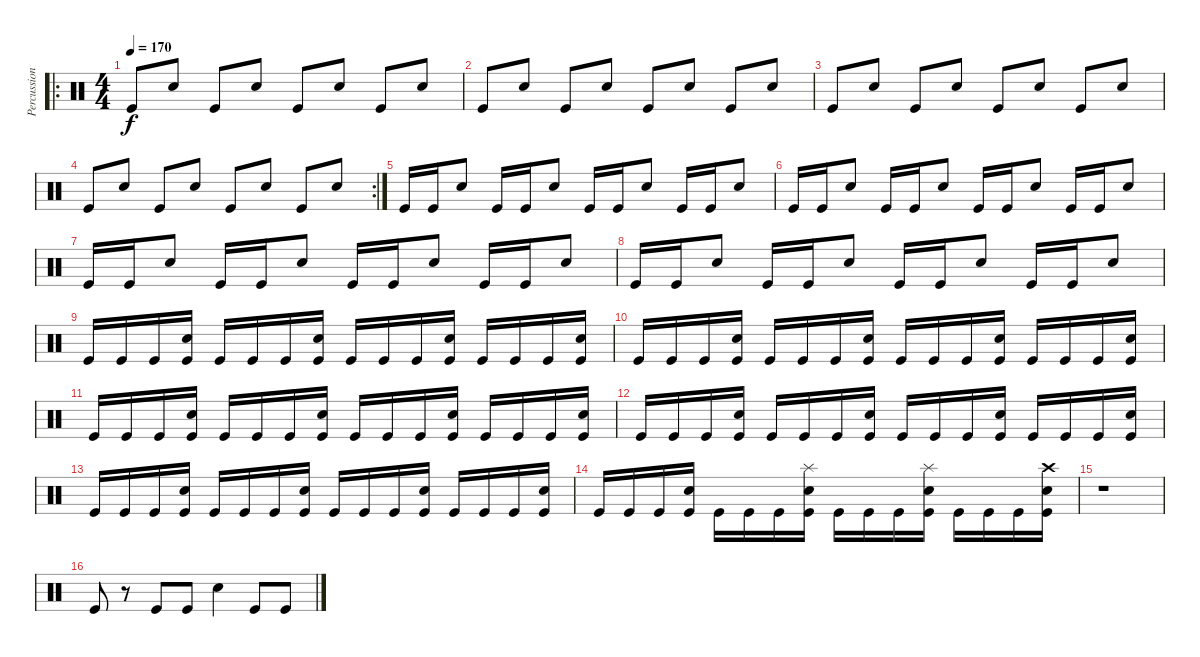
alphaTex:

\track ("Percussion" "Percussion") {instrument percussion}
\staff {score}
\articulation defaults
\ro
\ts (4 4)
\tempo 170
\clef neutral
\ks c "Kick (hit)".8{dy f} "Electric Snare (hit)".8 "Kick (hit)".8 "Electric Snare (hit)".8 "Kick (hit)".8 "Electric Snare (hit)".8 "Kick (hit)".8 "Electric Snare (hit)".8
|
"Kick (hit)".8 "Electric Snare (hit)".8 "Kick (hit)".8 "Electric Snare (hit)".8 "Kick (hit)".8 "Electric Snare (hit)".8 "Kick (hit)".8 "Electric Snare (hit)".8 |
"Kick (hit)".8 "Electric Snare (hit)".8 "Kick (hit)".8 "Electric Snare (hit)".8 "Kick (hit)".8 "Electric Snare (hit)".8 "Kick (hit)".8 "Electric Snare (hit)".8 |
\rc 2 "Kick (hit)".8 "Electric Snare (hit)".8 "Kick (hit)".8 "Electric Snare (hit)".8 "Kick (hit)".8 "Electric Snare (hit)".8 "Kick (hit)".8 "Electric Snare (hit)".8
|
"Kick (hit)".16 "Kick (hit)".16 "Electric Snare (hit)".8 "Kick (hit)".16 "Kick (hit)".16 "Electric Snare (hit)".8 "Kick (hit)".16 "Kick (hit)".16 "Electric Snare (hit)".8 "Kick (hit)".16 "Kick (hit)".16 "Electric Snare (hit)".8 |
"Kick (hit)".16 "Kick (hit)".16 "Electric Snare (hit)".8 "Kick (hit)".16 "Kick (hit)".16 "Electric Snare (hit)".8 "Kick (hit)".16 "Kick (hit)".16 "Electric Snare (hit)".8 "Kick (hit)".16 "Kick (hit)".16 "Electric Snare (hit)".8 |
"Kick (hit)".16 "Kick (hit)".16 "Electric Snare (hit)".8 "Kick (hit)".16 "Kick (hit)".16 "Electric Snare (hit)".8 "Kick (hit)".16 "Kick (hit)".16 "Electric Snare (hit)".8 "Kick (hit)".16 "Kick (hit)".16 "Electric Snare (hit)".8 |
"Kick (hit)".16 "Kick (hit)".16 "Electric Snare (hit)".8 "Kick (hit)".16 "Kick (hit)".16 "Electric Snare (hit)".8 "Kick (hit)".16 "Kick (hit)".16 "Electric Snare (hit)".8 "Kick (hit)".16 "Kick (hit)".16 "Electric Snare (hit)".8 |
"Kick (hit)".16 "Kick (hit)".16 "Kick (hit)".16 ("Electric Snare (hit)" "Kick (hit)").16 "Kick (hit)".16 "Kick (hit)".16 "Kick (hit)".16 ("Electric Snare (hit)" "Kick (hit)").16 "Kick (hit)".16 "Kick (hit)".16 "Kick (hit)".16 ("Electric Snare (hit)" "Kick (hit)").16 "Kick (hit)".16 "Kick (hit)".16 "Kick (hit)".16 ("Electric Snare (hit)" "Kick (hit)").16 |
"Kick (hit)".16 "Kick (hit)".16 "Kick (hit)".16 ("Electric Snare (hit)" "Kick (hit)").16 "Kick (hit)".16 "Kick (hit)".16 "Kick (hit)".16 ("Electric Snare (hit)" "Kick (hit)").16 "Kick (hit)".16 "Kick (hit)".16 "Kick (hit)".16 ("Electric Snare (hit)" "Kick (hit)").16 "Kick (hit)".16 "Kick (hit)".16 "Kick (hit)".16 ("Electric Snare (hit)" "Kick (hit)").16 |
"Kick (hit)".16 "Kick (hit)".16 "Kick (hit)".16 ("Electric Snare (hit)" "Kick (hit)").16 "Kick (hit)".16 "Kick (hit)".16 "Kick (hit)".16 ("Electric Snare (hit)" "Kick (hit)").16 "Kick (hit)".16 "Kick (hit)".16 "Kick (hit)".16 ("Electric Snare (hit)" "Kick (hit)").16 "Kick (hit)".16 "Kick (hit)".16 "Kick (hit)".16 ("Electric Snare (hit)" "Kick (hit)").16 |
"Kick (hit)".16 "Kick (hit)".16 "Kick (hit)".16 ("Electric Snare (hit)" "Kick (hit)").16 "Kick (hit)".16 "Kick (hit)".16 "Kick (hit)".16 ("Electric Snare (hit)" "Kick (hit)").16 "Kick (hit)".16 "Kick (hit)".16 "Kick (hit)".16 ("Electric Snare (hit)" "Kick (hit)").16 "Kick (hit)".16 "Kick (hit)".16 "Kick (hit)".16 ("Electric Snare (hit)" "Kick (hit)").16 |
"Kick (hit)".16 "Kick (hit)".16 "Kick (hit)".16 ("Electric Snare (hit)" "Kick (hit)").16 "Kick (hit)".16 "Kick (hit)".16 "Kick (hit)".16 ("Electric Snare (hit)" "Kick (hit)").16 "Kick (hit)".16 "Kick (hit)".16 "Kick (hit)".16 ("Electric Snare (hit)" "Kick (hit)").16 "Kick (hit)".16 "Kick (hit)".16 "Kick (hit)".16 ("Electric Snare (hit)" "Kick (hit)").16 |
"Kick (hit)".16 "Kick (hit)".16 "Kick (hit)".16 ("Electric Snare (hit)" "Kick (hit)").16 "Kick (hit)".16 "Kick (hit)".16 "Kick (hit)".16 ("Splash (hit)" "Electric Snare (hit)" "Kick (hit)").16 "Kick (hit)".16 "Kick (hit)".16 "Kick (hit)".16 ("Splash (hit)" "Electric Snare (hit)" "Kick (hit)").16 "Kick (hit)".16 "Kick (hit)".16 "Kick (hit)".16 ("Crash high (hit)" "Electric Snare (hit)" "Kick (hit)").16 |
r.1 |
"Kick (hit)".8 r.8 "Kick (hit)".8 "Kick (hit)".8 "Electric Snare (hit)".4 "Kick (hit)".8 "Kick (hit)".8
